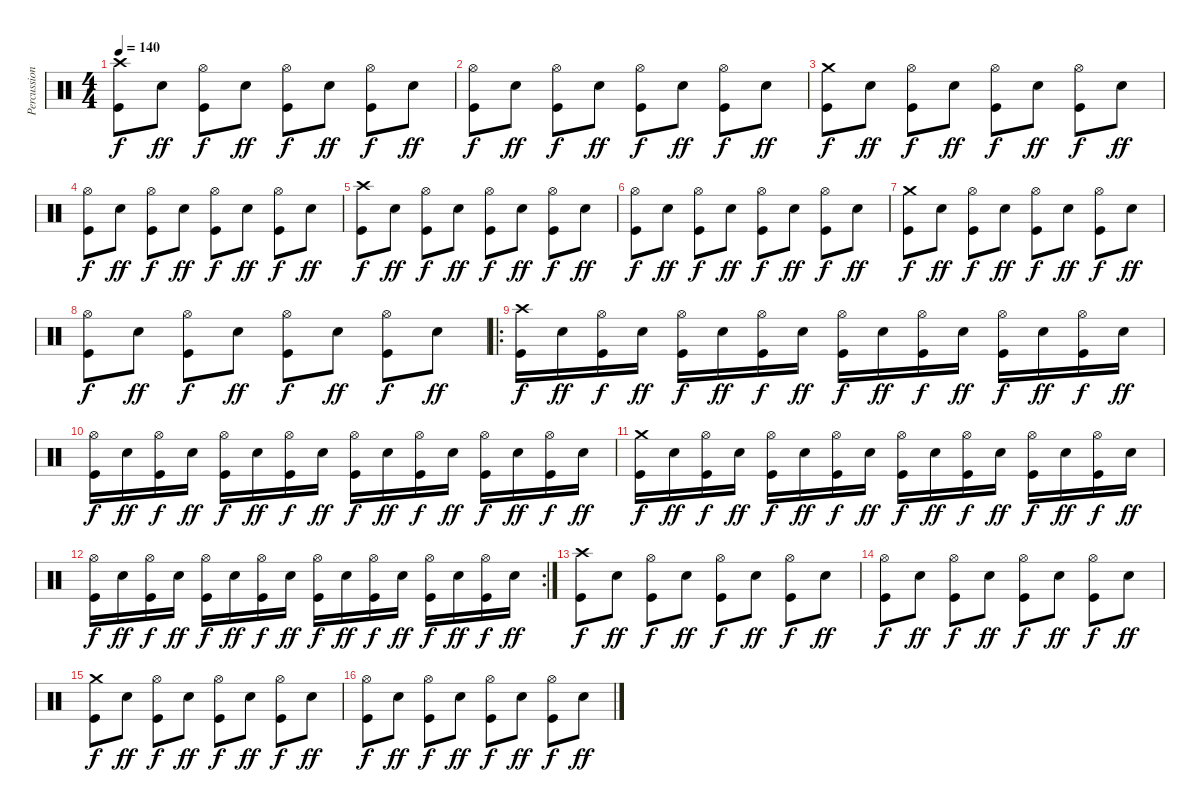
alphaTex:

\track ("Percussions" "Percussion") {instrument percussion}
\staff {score}
\articulation defaults
\ts (4 4)
\tempo 140
\clef neutral
\ks c
("Crash high (hit)" "Kick (hit)").8{dy f} "Snare (hit) 2".8{dy ff} ("Hi-Hat (open)" "Kick (hit)").8{dy f} "Snare (hit) 2".8{dy ff} ("Hi-Hat (open)" "Kick (hit)").8{dy f} "Snare (hit) 2".8{dy ff} ("Hi-Hat (open)" "Kick (hit)").8{dy f} "Snare (hit) 2".8{dy ff} |
("Hi-Hat (open)" "Kick (hit)").8{dy f} "Snare (hit) 2".8{dy ff} ("Hi-Hat (open)" "Kick (hit)").8{dy f} "Snare (hit) 2".8{dy ff} ("Hi-Hat (open)" "Kick (hit)").8{dy f} "Snare (hit) 2".8{dy ff} ("Hi-Hat (open)" "Kick (hit)").8{dy f} "Snare (hit) 2".8{dy ff} |
("Crash medium (hit)" "Kick (hit)").8{dy f} "Snare (hit) 2".8{dy ff} ("Hi-Hat (open)" "Kick (hit)").8{dy f} "Snare (hit) 2".8{dy ff} ("Hi-Hat (open)" "Kick (hit)").8{dy f} "Snare (hit) 2".8{dy ff} ("Hi-Hat (open)" "Kick (hit)").8{dy f} "Snare (hit) 2".8{dy ff} |
("Hi-Hat (open)" "Kick (hit)").8{dy f} "Snare (hit) 2".8{dy ff} ("Hi-Hat (open)" "Kick (hit)").8{dy f} "Snare (hit) 2".8{dy ff} ("Hi-Hat (open)" "Kick (hit)").8{dy f} "Snare (hit) 2".8{dy ff} ("Hi-Hat (open)" "Kick (hit)").8{dy f} "Snare (hit) 2".8{dy ff} |
("Crash high (hit)" "Kick (hit)").8{dy f} "Snare (hit) 2".8{dy ff} ("Hi-Hat (open)" "Kick (hit)").8{dy f} "Snare (hit) 2".8{dy ff} ("Hi-Hat (open)" "Kick (hit)").8{dy f} "Snare (hit) 2".8{dy ff} ("Hi-Hat (open)" "Kick (hit)").8{dy f} "Snare (hit) 2".8{dy ff} |
("Hi-Hat (open)" "Kick (hit)").8{dy f} "Snare (hit) 2".8{dy ff} ("Hi-Hat (open)" "Kick (hit)").8{dy f} "Snare (hit) 2".8{dy ff} ("Hi-Hat (open)" "Kick (hit)").8{dy f} "Snare (hit) 2".8{dy ff} ("Hi-Hat (open)" "Kick (hit)").8{dy f} "Snare (hit) 2".8{dy ff} |
("Crash medium (hit)" "Kick (hit)").8{dy f} "Snare (hit) 2".8{dy ff} ("Hi-Hat (open)" "Kick (hit)").8{dy f} "Snare (hit) 2".8{dy ff} ("Hi-Hat (open)" "Kick (hit)").8{dy f} "Snare (hit) 2".8{dy ff} ("Hi-Hat (open)" "Kick (hit)").8{dy f} "Snare (hit) 2".8{dy ff} |
("Hi-Hat (open)" "Kick (hit)").8{dy f} "Snare (hit) 2".8{dy ff} ("Hi-Hat (open)" "Kick (hit)").8{dy f} "Snare (hit) 2".8{dy ff} ("Hi-Hat (open)" "Kick (hit)").8{dy f} "Snare (hit) 2".8{dy ff} ("Hi-Hat (open)" "Kick (hit)").8{dy f} "Snare (hit) 2".8{dy ff} |
\ro
("Crash high (hit)" "Kick (hit)").16{dy f} "Snare (hit) 2".16{dy ff} ("Hi-Hat (open)" "Kick (hit)").16{dy f} "Snare (hit) 2".16{dy ff} ("Hi-Hat (open)" "Kick (hit)").16{dy f} "Snare (hit) 2".16{dy ff} ("Hi-Hat (open)" "Kick (hit)").16{dy f} "Snare (hit) 2".16{dy ff} ("Hi-Hat (open)" "Kick (hit)").16{dy f} "Snare (hit) 2".16{dy ff} ("Hi-Hat (open)" "Kick (hit)").16{dy f} "Snare (hit) 2".16{dy ff} ("Hi-Hat (open)" "Kick (hit)").16{dy f} "Snare (hit) 2".16{dy ff} ("Hi-Hat (open)" "Kick (hit)").16{dy f} "Snare (hit) 2".16{dy ff} |
("Hi-Hat (open)" "Kick (hit)").16{dy f} "Snare (hit) 2".16{dy ff} ("Hi-Hat (open)" "Kick (hit)").16{dy f} "Snare (hit) 2".16{dy ff} ("Hi-Hat (open)" "Kick (hit)").16{dy f} "Snare (hit) 2".16{dy ff} ("Hi-Hat (open)" "Kick (hit)").16{dy f} "Snare (hit) 2".16{dy ff} ("Hi-Hat (open)" "Kick (hit)").16{dy f} "Snare (hit) 2".16{dy ff} ("Hi-Hat (open)" "Kick (hit)").16{dy f} "Snare (hit) 2".16{dy ff} ("Hi-Hat (open)" "Kick (hit)").16{dy f} "Snare (hit) 2".16{dy ff} ("Hi-Hat (open)" "Kick (hit)").16{dy f} "Snare (hit) 2".16{dy ff} |
("Crash medium (hit)" "Kick (hit)").16{dy f} "Snare (hit) 2".16{dy ff} ("Hi-Hat (open)" "Kick (hit)").16{dy f} "Snare (hit) 2".16{dy ff} ("Hi-Hat (open)" "Kick (hit)").16{dy f} "Snare (hit) 2".16{dy ff} ("Hi-Hat (open)" "Kick (hit)").16{dy f} "Snare (hit) 2".16{dy ff} ("Hi-Hat (open)" "Kick (hit)").16{dy f} "Snare (hit) 2".16{dy ff} ("Hi-Hat (open)" "Kick (hit)").16{dy f} "Snare (hit) 2".16{dy ff} ("Hi-Hat (open)" "Kick (hit)").16{dy f} "Snare (hit) 2".16{dy ff} ("Hi-Hat (open)" "Kick (hit)").16{dy f} "Snare (hit) 2".16{dy ff} |
\rc 2
("Hi-Hat (open)" "Kick (hit)").16{dy f} "Snare (hit) 2".16{dy ff} ("Hi-Hat (open)" "Kick (hit)").16{dy f} "Snare (hit) 2".16{dy ff} ("Hi-Hat (open)" "Kick (hit)").16{dy f} "Snare (hit) 2".16{dy ff} ("Hi-Hat (open)" "Kick (hit)").16{dy f} "Snare (hit) 2".16{dy ff} ("Hi-Hat (open)" "Kick (hit)").16{dy f} "Snare (hit) 2".16{dy ff} ("Hi-Hat (open)" "Kick (hit)").16{dy f} "Snare (hit) 2".16{dy ff} ("Hi-Hat (open)" "Kick (hit)").16{dy f} "Snare (hit) 2".16{dy ff} ("Hi-Hat (open)" "Kick (hit)").16{dy f} "Snare (hit) 2".16{dy ff} |
("Crash high (hit)" "Kick (hit)").8{dy f} "Snare (hit) 2".8{dy ff} ("Hi-Hat (open)" "Kick (hit)").8{dy f} "Snare (hit) 2".8{dy ff} ("Hi-Hat (open)" "Kick (hit)").8{dy f} "Snare (hit) 2".8{dy ff} ("Hi-Hat (open)" "Kick (hit)").8{dy f} "Snare (hit) 2".8{dy ff} |
("Hi-Hat (open)" "Kick (hit)").8{dy f} "Snare (hit) 2".8{dy ff} ("Hi-Hat (open)" "Kick (hit)").8{dy f} "Snare (hit) 2".8{dy ff} ("Hi-Hat (open)" "Kick (hit)").8{dy f} "Snare (hit) 2".8{dy ff} ("Hi-Hat (open)" "Kick (hit)").8{dy f} "Snare (hit) 2".8{dy ff} |
("Crash medium (hit)" "Kick (hit)").8{dy f} "Snare (hit) 2".8{dy ff} ("Hi-Hat (open)" "Kick (hit)").8{dy f} "Snare (hit) 2".8{dy ff} ("Hi-Hat (open)" "Kick (hit)").8{dy f} "Snare (hit) 2".8{dy ff} ("Hi-Hat (open)" "Kick (hit)").8{dy f} "Snare (hit) 2".8{dy ff} |
("Hi-Hat (open)" "Kick (hit)").8{dy f} "Snare (hit) 2".8{dy ff} ("Hi-Hat (open)" "Kick (hit)").8{dy f} "Snare (hit) 2".8{dy ff} ("Hi-Hat (open)" "Kick (hit)").8{dy f} "Snare (hit) 2".8{dy ff} ("Hi-Hat (open)" "Kick (hit)").8{dy f} "Snare (hit) 2".8{dy ff}
